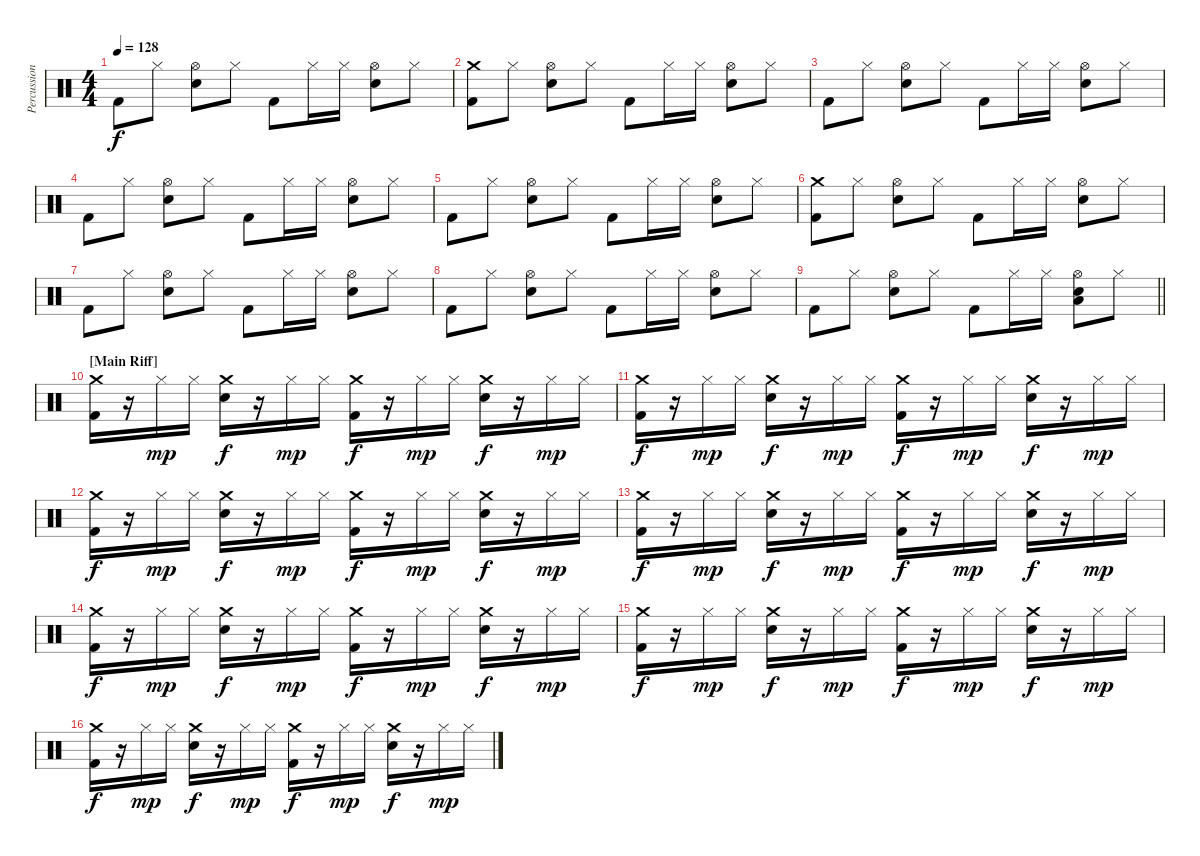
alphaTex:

\track ("Percussion" "Percussion") {instrument percussion}
\staff {score}
\articulation defaults
\ts (4 4)
\tempo 128
\clef neutral
\ks c "Kick (hit) 2".8{dy f} "Hi-Hat (closed)".8
("Hi-Hat (open)" "Snare (hit) 2").8 "Hi-Hat (closed)".8 "Kick (hit) 2".8 "Hi-Hat (closed)".16 "Hi-Hat (closed)".16 ("Hi-Hat (open)" "Snare (hit) 2").8 "Hi-Hat (closed)".8 |
("Crash medium (hit)" "Kick (hit) 2").8 "Hi-Hat (closed)".8 ("Hi-Hat (open)" "Snare (hit) 2").8 "Hi-Hat (closed)".8 "Kick (hit) 2".8 "Hi-Hat (closed)".16 "Hi-Hat (closed)".16 ("Hi-Hat (open)" "Snare (hit) 2").8 "Hi-Hat (closed)".8 |
"Kick (hit) 2".8 "Hi-Hat (closed)".8 ("Hi-Hat (open)" "Snare (hit) 2").8 "Hi-Hat (closed)".8 "Kick (hit) 2".8 "Hi-Hat (closed)".16 "Hi-Hat (closed)".16 ("Hi-Hat (open)" "Snare (hit) 2").8 "Hi-Hat (closed)".8 |
"Kick (hit) 2".8 "Hi-Hat (closed)".8 ("Hi-Hat (open)" "Snare (hit) 2").8 "Hi-Hat (closed)".8 "Kick (hit) 2".8 "Hi-Hat (closed)".16 "Hi-Hat (closed)".16 ("Hi-Hat (open)" "Snare (hit) 2").8 "Hi-Hat (closed)".8 |
"Kick (hit) 2".8 "Hi-Hat (closed)".8 ("Hi-Hat (open)" "Snare (hit) 2").8 "Hi-Hat (closed)".8 "Kick (hit) 2".8 "Hi-Hat (closed)".16 "Hi-Hat (closed)".16 ("Hi-Hat (open)" "Snare (hit) 2").8 "Hi-Hat (closed)".8 |
("Crash medium (hit)" "Kick (hit) 2").8 "Hi-Hat (closed)".8 ("Hi-Hat (open)" "Snare (hit) 2").8 "Hi-Hat (closed)".8 "Kick (hit) 2".8 "Hi-Hat (closed)".16 "Hi-Hat (closed)".16 ("Hi-Hat (open)" "Snare (hit) 2").8 "Hi-Hat (closed)".8 |
"Kick (hit) 2".8 "Hi-Hat (closed)".8 ("Hi-Hat (open)" "Snare (hit) 2").8 "Hi-Hat (closed)".8 "Kick (hit) 2".8 "Hi-Hat (closed)".16 "Hi-Hat (closed)".16 ("Hi-Hat (open)" "Snare (hit) 2").8 "Hi-Hat (closed)".8 |
"Kick (hit) 2".8 "Hi-Hat (closed)".8 ("Hi-Hat (open)" "Snare (hit) 2").8 "Hi-Hat (closed)".8 "Kick (hit) 2".8 "Hi-Hat (closed)".16 "Hi-Hat (closed)".16 ("Hi-Hat (open)" "Snare (hit) 2").8 "Hi-Hat (closed)".8 |
\barLineRight lightlight "Kick (hit) 2".8 "Hi-Hat (closed)".8
("Hi-Hat (open)" "Snare (hit) 2").8 "Hi-Hat (closed)".8 "Kick (hit) 2".8 "Hi-Hat (closed)".16 "Hi-Hat (closed)".16 ("Low Floor Tom (hit)" "Hi-Hat (open)" "Snare (hit) 2").8 "Hi-Hat (closed)".8 |
\section ("" "[Main Riff]")
("Crash medium (hit)" "Kick (hit) 2").16 r.16 "Hi-Hat (closed)".16{dy mp} "Hi-Hat (closed)".16 ("Crash medium (hit)" "Snare (hit) 2").16{dy f} r.16 "Hi-Hat (closed)".16{dy mp} "Hi-Hat (closed)".16 ("Crash medium (hit)" "Kick (hit) 2").16{dy f} r.16 "Hi-Hat (closed)".16{dy mp} "Hi-Hat (closed)".16 ("Crash medium (hit)" "Snare (hit) 2").16{dy f} r.16 "Hi-Hat (closed)".16{dy mp} "Hi-Hat (closed)".16 |
("Crash medium (hit)" "Kick (hit) 2").16{dy f} r.16 "Hi-Hat (closed)".16{dy mp} "Hi-Hat (closed)".16 ("Crash medium (hit)" "Snare (hit) 2").16{dy f} r.16 "Hi-Hat (closed)".16{dy mp} "Hi-Hat (closed)".16 ("Crash medium (hit)" "Kick (hit) 2").16{dy f} r.16 "Hi-Hat (closed)".16{dy mp} "Hi-Hat (closed)".16 ("Crash medium (hit)" "Snare (hit) 2").16{dy f} r.16 "Hi-Hat (closed)".16{dy mp} "Hi-Hat (closed)".16 |
("Crash medium (hit)" "Kick (hit) 2").16{dy f} r.16 "Hi-Hat (closed)".16{dy mp} "Hi-Hat (closed)".16 ("Crash medium (hit)" "Snare (hit) 2").16{dy f} r.16 "Hi-Hat (closed)".16{dy mp} "Hi-Hat (closed)".16 ("Crash medium (hit)" "Kick (hit) 2").16{dy f} r.16 "Hi-Hat (closed)".16{dy mp} "Hi-Hat (closed)".16 ("Crash medium (hit)" "Snare (hit) 2").16{dy f} r.16 "Hi-Hat (closed)".16{dy mp} "Hi-Hat (closed)".16 |
("Crash medium (hit)" "Kick (hit) 2").16{dy f} r.16 "Hi-Hat (closed)".16{dy mp} "Hi-Hat (closed)".16 ("Crash medium (hit)" "Snare (hit) 2").16{dy f} r.16 "Hi-Hat (closed)".16{dy mp} "Hi-Hat (closed)".16 ("Crash medium (hit)" "Kick (hit) 2").16{dy f} r.16 "Hi-Hat (closed)".16{dy mp} "Hi-Hat (closed)".16 ("Crash medium (hit)" "Snare (hit) 2").16{dy f} r.16 "Hi-Hat (closed)".16{dy mp} "Hi-Hat (closed)".16 |
("Crash medium (hit)" "Kick (hit) 2").16{dy f} r.16 "Hi-Hat (closed)".16{dy mp} "Hi-Hat (closed)".16 ("Crash medium (hit)" "Snare (hit) 2").16{dy f} r.16 "Hi-Hat (closed)".16{dy mp} "Hi-Hat (closed)".16 ("Crash medium (hit)" "Kick (hit) 2").16{dy f} r.16 "Hi-Hat (closed)".16{dy mp} "Hi-Hat (closed)".16 ("Crash medium (hit)" "Snare (hit) 2").16{dy f} r.16 "Hi-Hat (closed)".16{dy mp} "Hi-Hat (closed)".16 |
("Crash medium (hit)" "Kick (hit) 2").16{dy f} r.16 "Hi-Hat (closed)".16{dy mp} "Hi-Hat (closed)".16 ("Crash medium (hit)" "Snare (hit) 2").16{dy f} r.16 "Hi-Hat (closed)".16{dy mp} "Hi-Hat (closed)".16 ("Crash medium (hit)" "Kick (hit) 2").16{dy f} r.16 "Hi-Hat (closed)".16{dy mp} "Hi-Hat (closed)".16 ("Crash medium (hit)" "Snare (hit) 2").16{dy f} r.16 "Hi-Hat (closed)".16{dy mp} "Hi-Hat (closed)".16 |
("Crash medium (hit)" "Kick (hit) 2").16{dy f} r.16 "Hi-Hat (closed)".16{dy mp} "Hi-Hat (closed)".16 ("Crash medium (hit)" "Snare (hit) 2").16{dy f} r.16 "Hi-Hat (closed)".16{dy mp} "Hi-Hat (closed)".16 ("Crash medium (hit)" "Kick (hit) 2").16{dy f} r.16 "Hi-Hat (closed)".16{dy mp} "Hi-Hat (closed)".16 ("Crash medium (hit)" "Snare (hit) 2").16{dy f} r.16 "Hi-Hat (closed)".16{dy mp} "Hi-Hat (closed)".16
